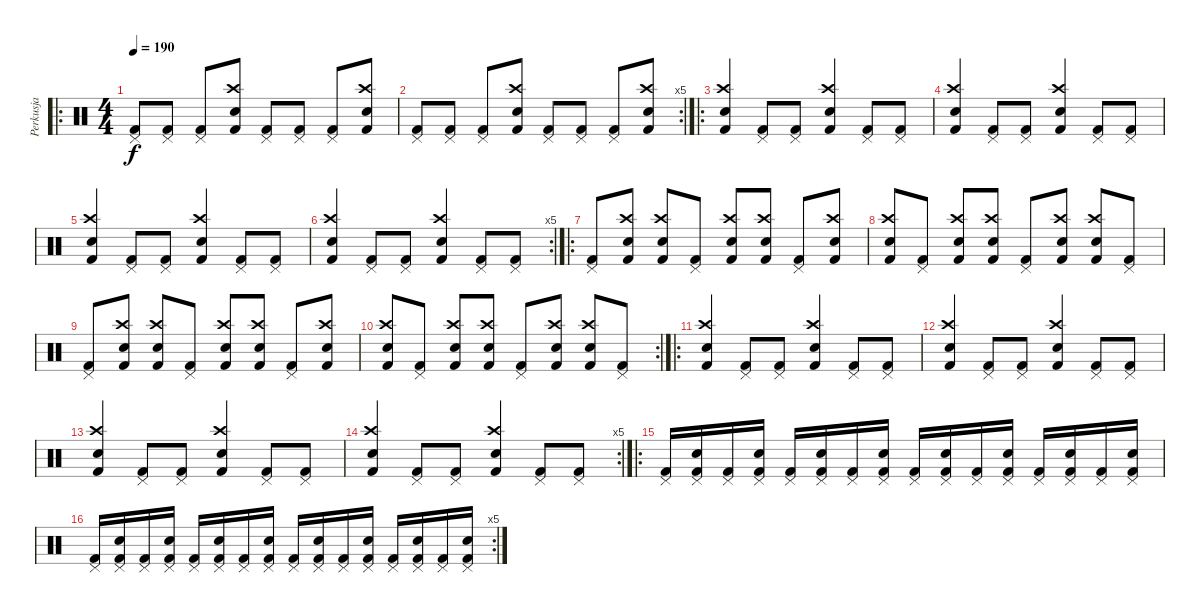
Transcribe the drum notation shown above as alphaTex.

\track ("Perkusja" "Perkusja") {instrument percussion}
\staff {score}
\articulation defaults
\ro
\ts (4 4)
\tempo 190
\clef neutral
\ks c
("Pedal Hi-Hat (hit)" "Kick (hit) 2").8{dy f} ("Pedal Hi-Hat (hit)" "Kick (hit) 2").8 ("Pedal Hi-Hat (hit)" "Kick (hit) 2").8 ("Crash high (hit)" "Snare (hit) 2" "Kick (hit) 2").8 ("Pedal Hi-Hat (hit)" "Kick (hit) 2").8 ("Pedal Hi-Hat (hit)" "Kick (hit) 2").8 ("Pedal Hi-Hat (hit)" "Kick (hit) 2").8 ("Crash high (hit)" "Snare (hit) 2" "Kick (hit) 2").8 |
\rc 5
("Pedal Hi-Hat (hit)" "Kick (hit) 2").8 ("Pedal Hi-Hat (hit)" "Kick (hit) 2").8 ("Pedal Hi-Hat (hit)" "Kick (hit) 2").8 ("Crash high (hit)" "Snare (hit) 2" "Kick (hit) 2").8 ("Pedal Hi-Hat (hit)" "Kick (hit) 2").8 ("Pedal Hi-Hat (hit)" "Kick (hit) 2").8 ("Pedal Hi-Hat (hit)" "Kick (hit) 2").8 ("Crash high (hit)" "Snare (hit) 2" "Kick (hit) 2").8 |
\ro
("Crash high (hit)" "Snare (hit) 2" "Kick (hit) 2").4 ("Pedal Hi-Hat (hit)" "Kick (hit) 2").8 ("Pedal Hi-Hat (hit)" "Kick (hit) 2").8 ("Crash high (hit)" "Snare (hit) 2" "Kick (hit) 2").4 ("Pedal Hi-Hat (hit)" "Kick (hit) 2").8 ("Pedal Hi-Hat (hit)" "Kick (hit) 2").8 |
("Crash high (hit)" "Snare (hit) 2" "Kick (hit) 2").4 ("Pedal Hi-Hat (hit)" "Kick (hit) 2").8 ("Pedal Hi-Hat (hit)" "Kick (hit) 2").8 ("Crash high (hit)" "Snare (hit) 2" "Kick (hit) 2").4 ("Pedal Hi-Hat (hit)" "Kick (hit) 2").8 ("Pedal Hi-Hat (hit)" "Kick (hit) 2").8 |
("Crash high (hit)" "Snare (hit) 2" "Kick (hit) 2").4 ("Pedal Hi-Hat (hit)" "Kick (hit) 2").8 ("Pedal Hi-Hat (hit)" "Kick (hit) 2").8 ("Crash high (hit)" "Snare (hit) 2" "Kick (hit) 2").4 ("Pedal Hi-Hat (hit)" "Kick (hit) 2").8 ("Pedal Hi-Hat (hit)" "Kick (hit) 2").8 |
\rc 5
("Crash high (hit)" "Snare (hit) 2" "Kick (hit) 2").4 ("Pedal Hi-Hat (hit)" "Kick (hit) 2").8 ("Pedal Hi-Hat (hit)" "Kick (hit) 2").8 ("Crash high (hit)" "Snare (hit) 2" "Kick (hit) 2").4 ("Pedal Hi-Hat (hit)" "Kick (hit) 2").8 ("Pedal Hi-Hat (hit)" "Kick (hit) 2").8 |
\ro
("Pedal Hi-Hat (hit)" "Kick (hit) 2").8 ("Crash high (hit)" "Snare (hit) 2" "Kick (hit) 2").8 ("Crash high (hit)" "Snare (hit) 2" "Kick (hit) 2").8 ("Pedal Hi-Hat (hit)" "Kick (hit) 2").8 ("Crash high (hit)" "Snare (hit) 2" "Kick (hit) 2").8 ("Crash high (hit)" "Snare (hit) 2" "Kick (hit) 2").8 ("Pedal Hi-Hat (hit)" "Kick (hit) 2").8 ("Crash high (hit)" "Snare (hit) 2" "Kick (hit) 2").8 |
("Crash high (hit)" "Snare (hit) 2" "Kick (hit) 2").8 ("Pedal Hi-Hat (hit)" "Kick (hit) 2").8 ("Crash high (hit)" "Snare (hit) 2" "Kick (hit) 2").8 ("Crash high (hit)" "Snare (hit) 2" "Kick (hit) 2").8 ("Pedal Hi-Hat (hit)" "Kick (hit) 2").8 ("Crash high (hit)" "Snare (hit) 2" "Kick (hit) 2").8 ("Crash high (hit)" "Snare (hit) 2" "Kick (hit) 2").8 ("Pedal Hi-Hat (hit)" "Kick (hit) 2").8 |
("Pedal Hi-Hat (hit)" "Kick (hit) 2").8 ("Crash high (hit)" "Snare (hit) 2" "Kick (hit) 2").8 ("Crash high (hit)" "Snare (hit) 2" "Kick (hit) 2").8 ("Pedal Hi-Hat (hit)" "Kick (hit) 2").8 ("Crash high (hit)" "Snare (hit) 2" "Kick (hit) 2").8 ("Crash high (hit)" "Snare (hit) 2" "Kick (hit) 2").8 ("Pedal Hi-Hat (hit)" "Kick (hit) 2").8 ("Crash high (hit)" "Snare (hit) 2" "Kick (hit) 2").8 |
\rc 2
("Crash high (hit)" "Snare (hit) 2" "Kick (hit) 2").8 ("Pedal Hi-Hat (hit)" "Kick (hit) 2").8 ("Crash high (hit)" "Snare (hit) 2" "Kick (hit) 2").8 ("Crash high (hit)" "Snare (hit) 2" "Kick (hit) 2").8 ("Pedal Hi-Hat (hit)" "Kick (hit) 2").8 ("Crash high (hit)" "Snare (hit) 2" "Kick (hit) 2").8 ("Crash high (hit)" "Snare (hit) 2" "Kick (hit) 2").8 ("Pedal Hi-Hat (hit)" "Kick (hit) 2").8 |
\ro
("Crash high (hit)" "Snare (hit) 2" "Kick (hit) 2").4 ("Pedal Hi-Hat (hit)" "Kick (hit) 2").8 ("Pedal Hi-Hat (hit)" "Kick (hit) 2").8 ("Crash high (hit)" "Snare (hit) 2" "Kick (hit) 2").4 ("Pedal Hi-Hat (hit)" "Kick (hit) 2").8 ("Pedal Hi-Hat (hit)" "Kick (hit) 2").8 |
("Crash high (hit)" "Snare (hit) 2" "Kick (hit) 2").4 ("Pedal Hi-Hat (hit)" "Kick (hit) 2").8 ("Pedal Hi-Hat (hit)" "Kick (hit) 2").8 ("Crash high (hit)" "Snare (hit) 2" "Kick (hit) 2").4 ("Pedal Hi-Hat (hit)" "Kick (hit) 2").8 ("Pedal Hi-Hat (hit)" "Kick (hit) 2").8 |
("Crash high (hit)" "Snare (hit) 2" "Kick (hit) 2").4 ("Pedal Hi-Hat (hit)" "Kick (hit) 2").8 ("Pedal Hi-Hat (hit)" "Kick (hit) 2").8 ("Crash high (hit)" "Snare (hit) 2" "Kick (hit) 2").4 ("Pedal Hi-Hat (hit)" "Kick (hit) 2").8 ("Pedal Hi-Hat (hit)" "Kick (hit) 2").8 |
\rc 5
("Crash high (hit)" "Snare (hit) 2" "Kick (hit) 2").4 ("Pedal Hi-Hat (hit)" "Kick (hit) 2").8 ("Pedal Hi-Hat (hit)" "Kick (hit) 2").8 ("Crash high (hit)" "Snare (hit) 2" "Kick (hit) 2").4 ("Pedal Hi-Hat (hit)" "Kick (hit) 2").8 ("Pedal Hi-Hat (hit)" "Kick (hit) 2").8 |
\ro
("Pedal Hi-Hat (hit)" "Kick (hit) 2").16 ("Pedal Hi-Hat (hit)" "Snare (hit) 2" "Kick (hit) 2").16 ("Pedal Hi-Hat (hit)" "Kick (hit) 2").16 ("Pedal Hi-Hat (hit)" "Snare (hit) 2" "Kick (hit) 2").16 ("Pedal Hi-Hat (hit)" "Kick (hit) 2").16 ("Pedal Hi-Hat (hit)" "Snare (hit) 2" "Kick (hit) 2").16 ("Pedal Hi-Hat (hit)" "Kick (hit) 2").16 ("Pedal Hi-Hat (hit)" "Snare (hit) 2" "Kick (hit) 2").16 ("Pedal Hi-Hat (hit)" "Kick (hit) 2").16 ("Pedal Hi-Hat (hit)" "Snare (hit) 2" "Kick (hit) 2").16 ("Pedal Hi-Hat (hit)" "Kick (hit) 2").16 ("Pedal Hi-Hat (hit)" "Snare (hit) 2" "Kick (hit) 2").16 ("Pedal Hi-Hat (hit)" "Kick (hit) 2").16 ("Pedal Hi-Hat (hit)" "Snare (hit) 2" "Kick (hit) 2").16 ("Pedal Hi-Hat (hit)" "Kick (hit) 2").16 ("Pedal Hi-Hat (hit)" "Snare (hit) 2" "Kick (hit) 2").16 |
\rc 5
("Pedal Hi-Hat (hit)" "Kick (hit) 2").16 ("Pedal Hi-Hat (hit)" "Snare (hit) 2" "Kick (hit) 2").16 ("Pedal Hi-Hat (hit)" "Kick (hit) 2").16 ("Pedal Hi-Hat (hit)" "Snare (hit) 2" "Kick (hit) 2").16 ("Pedal Hi-Hat (hit)" "Kick (hit) 2").16 ("Pedal Hi-Hat (hit)" "Snare (hit) 2" "Kick (hit) 2").16 ("Pedal Hi-Hat (hit)" "Kick (hit) 2").16 ("Pedal Hi-Hat (hit)" "Snare (hit) 2" "Kick (hit) 2").16 ("Pedal Hi-Hat (hit)" "Kick (hit) 2").16 ("Pedal Hi-Hat (hit)" "Snare (hit) 2" "Kick (hit) 2").16 ("Pedal Hi-Hat (hit)" "Kick (hit) 2").16 ("Pedal Hi-Hat (hit)" "Snare (hit) 2" "Kick (hit) 2").16 ("Pedal Hi-Hat (hit)" "Kick (hit) 2").16 ("Pedal Hi-Hat (hit)" "Snare (hit) 2" "Kick (hit) 2").16 ("Pedal Hi-Hat (hit)" "Kick (hit) 2").16 ("Pedal Hi-Hat (hit)" "Snare (hit) 2" "Kick (hit) 2").16
